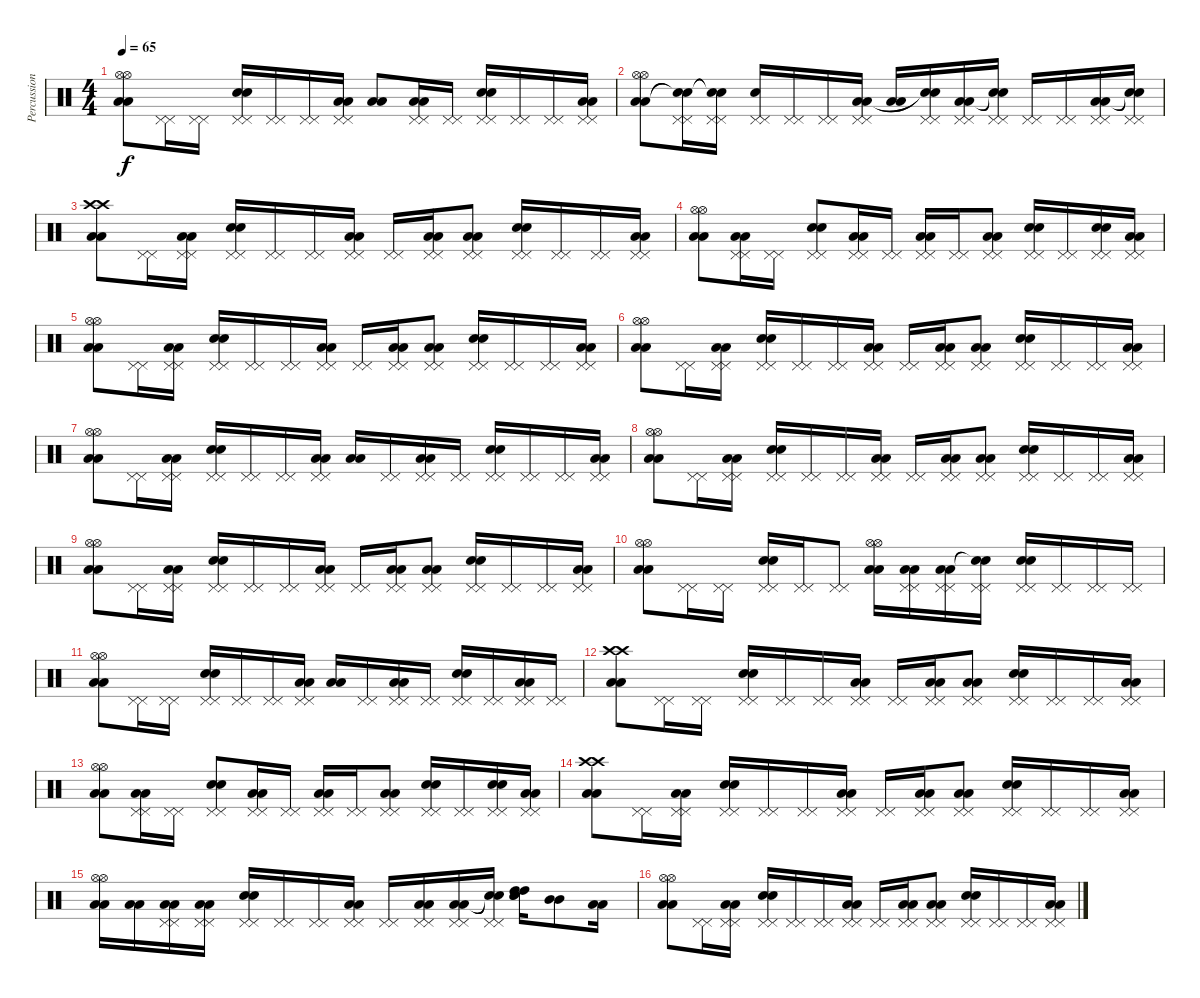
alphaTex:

\track ("Percussions" "Percussion") {instrument percussion}
\staff {score}
\articulation defaults
\ts (4 4)
\tempo 65
\clef neutral
\ks c
("Hi-Hat (open)" "Hi-Hat (open)" "Low Floor Tom (hit)" "Low Floor Tom (hit)").8{dy f} ("Pedal Hi-Hat (hit)" "Pedal Hi-Hat (hit)").16 ("Pedal Hi-Hat (hit)" "Pedal Hi-Hat (hit)").16 ("Pedal Hi-Hat (hit)" "Pedal Hi-Hat (hit)" "Snare (hit) 2" "Snare (hit) 2").16 ("Pedal Hi-Hat (hit)" "Pedal Hi-Hat (hit)").16 ("Pedal Hi-Hat (hit)" "Pedal Hi-Hat (hit)").16 ("Pedal Hi-Hat (hit)" "Pedal Hi-Hat (hit)" "Low Floor Tom (hit)" "Low Floor Tom (hit)").16 ("Low Floor Tom (hit)" "Low Floor Tom (hit)").8 ("Pedal Hi-Hat (hit)" "Pedal Hi-Hat (hit)" "Low Floor Tom (hit)" "Low Floor Tom (hit)").16 ("Pedal Hi-Hat (hit)" "Pedal Hi-Hat (hit)").16 ("Pedal Hi-Hat (hit)" "Pedal Hi-Hat (hit)" "Snare (hit) 2" "Snare (hit) 2").16 ("Pedal Hi-Hat (hit)" "Pedal Hi-Hat (hit)").16 ("Pedal Hi-Hat (hit)" "Pedal Hi-Hat (hit)").16 ("Pedal Hi-Hat (hit)" "Pedal Hi-Hat (hit)" "Low Floor Tom (hit)" "Low Floor Tom (hit)").16 |
("Hi-Hat (open)" "Hi-Hat (open)" "Low Floor Tom (hit)" "Low Floor Tom (hit)").8 ("Pedal Hi-Hat (hit)" "Pedal Hi-Hat (hit)" "Snare (hit)"{t} "Snare (hit)"{t}).16 ("Pedal Hi-Hat (hit)" "Pedal Hi-Hat (hit)" "Snare (hit)"{t} "Snare (hit)"{t}).16 ("Pedal Hi-Hat (hit)" "Pedal Hi-Hat (hit)" "Snare (hit) 2").16 ("Pedal Hi-Hat (hit)" "Pedal Hi-Hat (hit)").16 ("Pedal Hi-Hat (hit)" "Pedal Hi-Hat (hit)").16 ("Pedal Hi-Hat (hit)" "Pedal Hi-Hat (hit)" "Low Floor Tom (hit)" "Low Floor Tom (hit)").16 ("Low Floor Tom (hit)" "Low Floor Tom (hit)").16 ("Pedal Hi-Hat (hit)" "Pedal Hi-Hat (hit)" "Snare (hit)"{t} "Snare (hit)"{t}).16 ("Pedal Hi-Hat (hit)" "Pedal Hi-Hat (hit)" "Low Floor Tom (hit)" "Low Floor Tom (hit)").16 ("Pedal Hi-Hat (hit)" "Pedal Hi-Hat (hit)" "Snare (hit)"{t} "Snare (hit)"{t}).16 ("Pedal Hi-Hat (hit)" "Pedal Hi-Hat (hit)").16 ("Pedal Hi-Hat (hit)" "Pedal Hi-Hat (hit)").16 ("Pedal Hi-Hat (hit)" "Pedal Hi-Hat (hit)" "Low Floor Tom (hit)" "Low Floor Tom (hit)").16 ("Pedal Hi-Hat (hit)" "Pedal Hi-Hat (hit)" "Snare (hit)"{t} "Snare (hit)"{t}).16 |
("Crash high (hit)" "Crash high (hit)" "Low Floor Tom (hit)" "Low Floor Tom (hit)").8 ("Pedal Hi-Hat (hit)" "Pedal Hi-Hat (hit)").16 ("Pedal Hi-Hat (hit)" "Pedal Hi-Hat (hit)" "Low Floor Tom (hit)" "Low Floor Tom (hit)").16 ("Pedal Hi-Hat (hit)" "Pedal Hi-Hat (hit)" "Snare (hit) 2" "Snare (hit) 2").16 ("Pedal Hi-Hat (hit)" "Pedal Hi-Hat (hit)").16 ("Pedal Hi-Hat (hit)" "Pedal Hi-Hat (hit)").16 ("Pedal Hi-Hat (hit)" "Pedal Hi-Hat (hit)" "Low Floor Tom (hit)" "Low Floor Tom (hit)").16 ("Pedal Hi-Hat (hit)" "Pedal Hi-Hat (hit)").16 ("Pedal Hi-Hat (hit)" "Pedal Hi-Hat (hit)" "Low Floor Tom (hit)" "Low Floor Tom (hit)").16 ("Pedal Hi-Hat (hit)" "Pedal Hi-Hat (hit)" "Low Floor Tom (hit)" "Low Floor Tom (hit)").8 ("Pedal Hi-Hat (hit)" "Pedal Hi-Hat (hit)" "Snare (hit) 2" "Snare (hit) 2").16 ("Pedal Hi-Hat (hit)" "Pedal Hi-Hat (hit)").16 ("Pedal Hi-Hat (hit)" "Pedal Hi-Hat (hit)").16 ("Pedal Hi-Hat (hit)" "Pedal Hi-Hat (hit)" "Low Floor Tom (hit)" "Low Floor Tom (hit)").16 |
("Hi-Hat (open)" "Hi-Hat (open)" "Low Floor Tom (hit)" "Low Floor Tom (hit)").8 ("Pedal Hi-Hat (hit)" "Pedal Hi-Hat (hit)" "Low Floor Tom (hit)" "Low Floor Tom (hit)").16 ("Pedal Hi-Hat (hit)" "Pedal Hi-Hat (hit)").16 ("Pedal Hi-Hat (hit)" "Pedal Hi-Hat (hit)" "Snare (hit) 2" "Snare (hit) 2").8 ("Pedal Hi-Hat (hit)" "Pedal Hi-Hat (hit)" "Low Floor Tom (hit)" "Low Floor Tom (hit)").16 ("Pedal Hi-Hat (hit)" "Pedal Hi-Hat (hit)").16 ("Pedal Hi-Hat (hit)" "Pedal Hi-Hat (hit)" "Low Floor Tom (hit)" "Low Floor Tom (hit)").16 ("Pedal Hi-Hat (hit)" "Pedal Hi-Hat (hit)").16 ("Pedal Hi-Hat (hit)" "Pedal Hi-Hat (hit)" "Low Floor Tom (hit)" "Low Floor Tom (hit)").8 ("Pedal Hi-Hat (hit)" "Pedal Hi-Hat (hit)" "Snare (hit) 2" "Snare (hit) 2").16 ("Pedal Hi-Hat (hit)" "Pedal Hi-Hat (hit)").16 ("Pedal Hi-Hat (hit)" "Pedal Hi-Hat (hit)" "Snare (hit) 2" "Snare (hit) 2").16 ("Pedal Hi-Hat (hit)" "Pedal Hi-Hat (hit)" "Low Floor Tom (hit)" "Low Floor Tom (hit)").16 |
("Hi-Hat (open)" "Hi-Hat (open)" "Low Floor Tom (hit)" "Low Floor Tom (hit)").8 ("Pedal Hi-Hat (hit)" "Pedal Hi-Hat (hit)").16 ("Pedal Hi-Hat (hit)" "Pedal Hi-Hat (hit)" "Low Floor Tom (hit)" "Low Floor Tom (hit)").16 ("Pedal Hi-Hat (hit)" "Pedal Hi-Hat (hit)" "Snare (hit) 2" "Snare (hit) 2").16 ("Pedal Hi-Hat (hit)" "Pedal Hi-Hat (hit)").16 ("Pedal Hi-Hat (hit)" "Pedal Hi-Hat (hit)").16 ("Pedal Hi-Hat (hit)" "Pedal Hi-Hat (hit)" "Low Floor Tom (hit)" "Low Floor Tom (hit)").16 ("Pedal Hi-Hat (hit)" "Pedal Hi-Hat (hit)").16 ("Pedal Hi-Hat (hit)" "Pedal Hi-Hat (hit)" "Low Floor Tom (hit)" "Low Floor Tom (hit)").16 ("Pedal Hi-Hat (hit)" "Pedal Hi-Hat (hit)" "Low Floor Tom (hit)" "Low Floor Tom (hit)").8 ("Pedal Hi-Hat (hit)" "Pedal Hi-Hat (hit)" "Snare (hit) 2" "Snare (hit) 2").16 ("Pedal Hi-Hat (hit)" "Pedal Hi-Hat (hit)").16 ("Pedal Hi-Hat (hit)" "Pedal Hi-Hat (hit)").16 ("Pedal Hi-Hat (hit)" "Pedal Hi-Hat (hit)" "Low Floor Tom (hit)" "Low Floor Tom (hit)").16 |
("Hi-Hat (open)" "Hi-Hat (open)" "Low Floor Tom (hit)" "Low Floor Tom (hit)").8 ("Pedal Hi-Hat (hit)" "Pedal Hi-Hat (hit)").16 ("Pedal Hi-Hat (hit)" "Pedal Hi-Hat (hit)" "Low Floor Tom (hit)" "Low Floor Tom (hit)").16 ("Pedal Hi-Hat (hit)" "Pedal Hi-Hat (hit)" "Snare (hit) 2" "Snare (hit) 2").16 ("Pedal Hi-Hat (hit)" "Pedal Hi-Hat (hit)").16 ("Pedal Hi-Hat (hit)" "Pedal Hi-Hat (hit)").16 ("Pedal Hi-Hat (hit)" "Pedal Hi-Hat (hit)" "Low Floor Tom (hit)" "Low Floor Tom (hit)").16 ("Pedal Hi-Hat (hit)" "Pedal Hi-Hat (hit)").16 ("Pedal Hi-Hat (hit)" "Pedal Hi-Hat (hit)" "Low Floor Tom (hit)" "Low Floor Tom (hit)").16 ("Pedal Hi-Hat (hit)" "Pedal Hi-Hat (hit)" "Low Floor Tom (hit)" "Low Floor Tom (hit)").8 ("Pedal Hi-Hat (hit)" "Pedal Hi-Hat (hit)" "Snare (hit) 2" "Snare (hit) 2").16 ("Pedal Hi-Hat (hit)" "Pedal Hi-Hat (hit)").16 ("Pedal Hi-Hat (hit)" "Pedal Hi-Hat (hit)").16 ("Pedal Hi-Hat (hit)" "Pedal Hi-Hat (hit)" "Low Floor Tom (hit)" "Low Floor Tom (hit)").16 |
("Hi-Hat (open)" "Hi-Hat (open)" "Low Floor Tom (hit)" "Low Floor Tom (hit)").8 ("Pedal Hi-Hat (hit)" "Pedal Hi-Hat (hit)").16 ("Pedal Hi-Hat (hit)" "Pedal Hi-Hat (hit)" "Low Floor Tom (hit)" "Low Floor Tom (hit)").16 ("Pedal Hi-Hat (hit)" "Pedal Hi-Hat (hit)" "Snare (hit) 2" "Snare (hit) 2").16 ("Pedal Hi-Hat (hit)" "Pedal Hi-Hat (hit)").16 ("Pedal Hi-Hat (hit)" "Pedal Hi-Hat (hit)").16 ("Pedal Hi-Hat (hit)" "Pedal Hi-Hat (hit)" "Low Floor Tom (hit)" "Low Floor Tom (hit)").16 ("Low Floor Tom (hit)" "Low Floor Tom (hit)").16 ("Pedal Hi-Hat (hit)" "Pedal Hi-Hat (hit)").16 ("Pedal Hi-Hat (hit)" "Pedal Hi-Hat (hit)" "Low Floor Tom (hit)" "Low Floor Tom (hit)").16 ("Pedal Hi-Hat (hit)" "Pedal Hi-Hat (hit)").16 ("Pedal Hi-Hat (hit)" "Pedal Hi-Hat (hit)" "Snare (hit) 2" "Snare (hit) 2").16 ("Pedal Hi-Hat (hit)" "Pedal Hi-Hat (hit)").16 ("Pedal Hi-Hat (hit)" "Pedal Hi-Hat (hit)").16 ("Pedal Hi-Hat (hit)" "Pedal Hi-Hat (hit)" "Low Floor Tom (hit)" "Low Floor Tom (hit)").16 |
("Hi-Hat (open)" "Hi-Hat (open)" "Low Floor Tom (hit)" "Low Floor Tom (hit)").8 ("Pedal Hi-Hat (hit)" "Pedal Hi-Hat (hit)").16 ("Pedal Hi-Hat (hit)" "Pedal Hi-Hat (hit)" "Low Floor Tom (hit)" "Low Floor Tom (hit)").16 ("Pedal Hi-Hat (hit)" "Pedal Hi-Hat (hit)" "Snare (hit) 2" "Snare (hit) 2").16 ("Pedal Hi-Hat (hit)" "Pedal Hi-Hat (hit)").16 ("Pedal Hi-Hat (hit)" "Pedal Hi-Hat (hit)").16 ("Pedal Hi-Hat (hit)" "Pedal Hi-Hat (hit)" "Low Floor Tom (hit)" "Low Floor Tom (hit)").16 ("Pedal Hi-Hat (hit)" "Pedal Hi-Hat (hit)").16 ("Pedal Hi-Hat (hit)" "Pedal Hi-Hat (hit)" "Low Floor Tom (hit)" "Low Floor Tom (hit)").16 ("Pedal Hi-Hat (hit)" "Pedal Hi-Hat (hit)" "Low Floor Tom (hit)" "Low Floor Tom (hit)").8 ("Pedal Hi-Hat (hit)" "Pedal Hi-Hat (hit)" "Snare (hit) 2" "Snare (hit) 2").16 ("Pedal Hi-Hat (hit)" "Pedal Hi-Hat (hit)").16 ("Pedal Hi-Hat (hit)" "Pedal Hi-Hat (hit)").16 ("Pedal Hi-Hat (hit)" "Pedal Hi-Hat (hit)" "Low Floor Tom (hit)" "Low Floor Tom (hit)").16 |
("Hi-Hat (open)" "Hi-Hat (open)" "Low Floor Tom (hit)" "Low Floor Tom (hit)").8 ("Pedal Hi-Hat (hit)" "Pedal Hi-Hat (hit)").16 ("Pedal Hi-Hat (hit)" "Pedal Hi-Hat (hit)" "Low Floor Tom (hit)" "Low Floor Tom (hit)").16 ("Pedal Hi-Hat (hit)" "Pedal Hi-Hat (hit)" "Snare (hit) 2" "Snare (hit) 2").16 ("Pedal Hi-Hat (hit)" "Pedal Hi-Hat (hit)").16 ("Pedal Hi-Hat (hit)" "Pedal Hi-Hat (hit)").16 ("Pedal Hi-Hat (hit)" "Pedal Hi-Hat (hit)" "Low Floor Tom (hit)" "Low Floor Tom (hit)").16 ("Pedal Hi-Hat (hit)" "Pedal Hi-Hat (hit)").16 ("Pedal Hi-Hat (hit)" "Pedal Hi-Hat (hit)" "Low Floor Tom (hit)" "Low Floor Tom (hit)").16 ("Pedal Hi-Hat (hit)" "Pedal Hi-Hat (hit)" "Low Floor Tom (hit)" "Low Floor Tom (hit)").8 ("Pedal Hi-Hat (hit)" "Pedal Hi-Hat (hit)" "Snare (hit) 2" "Snare (hit) 2").16 ("Pedal Hi-Hat (hit)" "Pedal Hi-Hat (hit)").16 ("Pedal Hi-Hat (hit)" "Pedal Hi-Hat (hit)").16 ("Pedal Hi-Hat (hit)" "Pedal Hi-Hat (hit)" "Low Floor Tom (hit)" "Low Floor Tom (hit)").16 |
("Hi-Hat (open)" "Hi-Hat (open)" "Low Floor Tom (hit)" "Low Floor Tom (hit)").8 ("Pedal Hi-Hat (hit)" "Pedal Hi-Hat (hit)").16 ("Pedal Hi-Hat (hit)" "Pedal Hi-Hat (hit)").16 ("Pedal Hi-Hat (hit)" "Pedal Hi-Hat (hit)" "Snare (hit) 2" "Snare (hit) 2").16 ("Pedal Hi-Hat (hit)" "Pedal Hi-Hat (hit)").16 ("Pedal Hi-Hat (hit)" "Pedal Hi-Hat (hit)").8 ("Hi-Hat (open)" "Hi-Hat (open)" "Low Floor Tom (hit)" "Low Floor Tom (hit)").16 ("Pedal Hi-Hat (hit)" "Pedal Hi-Hat (hit)" "Low Floor Tom (hit)" "Low Floor Tom (hit)").16 ("Pedal Hi-Hat (hit)" "Pedal Hi-Hat (hit)" "Low Floor Tom (hit)" "Low Floor Tom (hit)").16 ("Pedal Hi-Hat (hit)" "Pedal Hi-Hat (hit)" "Snare (hit)"{t} "Snare (hit)"{t}).16 ("Pedal Hi-Hat (hit)" "Pedal Hi-Hat (hit)" "Snare (hit) 2" "Snare (hit) 2").16 ("Pedal Hi-Hat (hit)" "Pedal Hi-Hat (hit)").16 ("Pedal Hi-Hat (hit)" "Pedal Hi-Hat (hit)").16 ("Pedal Hi-Hat (hit)" "Pedal Hi-Hat (hit)").16 |
("Hi-Hat (open)" "Hi-Hat (open)" "Low Floor Tom (hit)" "Low Floor Tom (hit)").8 ("Pedal Hi-Hat (hit)" "Pedal Hi-Hat (hit)").16 ("Pedal Hi-Hat (hit)" "Pedal Hi-Hat (hit)").16 ("Pedal Hi-Hat (hit)" "Pedal Hi-Hat (hit)" "Snare (hit) 2" "Snare (hit) 2").16 ("Pedal Hi-Hat (hit)" "Pedal Hi-Hat (hit)").16 ("Pedal Hi-Hat (hit)" "Pedal Hi-Hat (hit)").16 ("Pedal Hi-Hat (hit)" "Pedal Hi-Hat (hit)" "Low Floor Tom (hit)" "Low Floor Tom (hit)").16 ("Low Floor Tom (hit)" "Low Floor Tom (hit)").16 ("Pedal Hi-Hat (hit)" "Pedal Hi-Hat (hit)").16 ("Pedal Hi-Hat (hit)" "Pedal Hi-Hat (hit)" "Low Floor Tom (hit)" "Low Floor Tom (hit)").16 ("Pedal Hi-Hat (hit)" "Pedal Hi-Hat (hit)").16 ("Pedal Hi-Hat (hit)" "Pedal Hi-Hat (hit)" "Snare (hit) 2" "Snare (hit) 2").16 ("Pedal Hi-Hat (hit)" "Pedal Hi-Hat (hit)").16 ("Pedal Hi-Hat (hit)" "Pedal Hi-Hat (hit)" "Low Floor Tom (hit)" "Low Floor Tom (hit)").16 ("Pedal Hi-Hat (hit)" "Pedal Hi-Hat (hit)").16 |
("Crash high (hit)" "Crash high (hit)" "Low Floor Tom (hit)" "Low Floor Tom (hit)").8 ("Pedal Hi-Hat (hit)" "Pedal Hi-Hat (hit)").16 ("Pedal Hi-Hat (hit)" "Pedal Hi-Hat (hit)").16 ("Pedal Hi-Hat (hit)" "Pedal Hi-Hat (hit)" "Snare (hit) 2" "Snare (hit) 2").16 ("Pedal Hi-Hat (hit)" "Pedal Hi-Hat (hit)").16 ("Pedal Hi-Hat (hit)" "Pedal Hi-Hat (hit)").16 ("Pedal Hi-Hat (hit)" "Pedal Hi-Hat (hit)" "Low Floor Tom (hit)" "Low Floor Tom (hit)").16 ("Pedal Hi-Hat (hit)" "Pedal Hi-Hat (hit)").16 ("Pedal Hi-Hat (hit)" "Pedal Hi-Hat (hit)" "Low Floor Tom (hit)" "Low Floor Tom (hit)").16 ("Pedal Hi-Hat (hit)" "Pedal Hi-Hat (hit)" "Low Floor Tom (hit)" "Low Floor Tom (hit)").8 ("Pedal Hi-Hat (hit)" "Pedal Hi-Hat (hit)" "Snare (hit) 2" "Snare (hit) 2").16 ("Pedal Hi-Hat (hit)" "Pedal Hi-Hat (hit)").16 ("Pedal Hi-Hat (hit)" "Pedal Hi-Hat (hit)").16 ("Pedal Hi-Hat (hit)" "Pedal Hi-Hat (hit)" "Low Floor Tom (hit)" "Low Floor Tom (hit)").16 |
("Hi-Hat (open)" "Hi-Hat (open)" "Low Floor Tom (hit)" "Low Floor Tom (hit)").8 ("Pedal Hi-Hat (hit)" "Pedal Hi-Hat (hit)" "Low Floor Tom (hit)" "Low Floor Tom (hit)").16 ("Pedal Hi-Hat (hit)" "Pedal Hi-Hat (hit)").16 ("Pedal Hi-Hat (hit)" "Pedal Hi-Hat (hit)" "Snare (hit) 2" "Snare (hit) 2").8 ("Pedal Hi-Hat (hit)" "Pedal Hi-Hat (hit)" "Low Floor Tom (hit)" "Low Floor Tom (hit)").16 ("Pedal Hi-Hat (hit)" "Pedal Hi-Hat (hit)").16 ("Pedal Hi-Hat (hit)" "Pedal Hi-Hat (hit)" "Low Floor Tom (hit)" "Low Floor Tom (hit)").16 ("Pedal Hi-Hat (hit)" "Pedal Hi-Hat (hit)").16 ("Pedal Hi-Hat (hit)" "Pedal Hi-Hat (hit)" "Low Floor Tom (hit)" "Low Floor Tom (hit)").8 ("Pedal Hi-Hat (hit)" "Pedal Hi-Hat (hit)" "Snare (hit) 2" "Snare (hit) 2").16 ("Pedal Hi-Hat (hit)" "Pedal Hi-Hat (hit)").16 ("Pedal Hi-Hat (hit)" "Pedal Hi-Hat (hit)" "Snare (hit) 2" "Snare (hit) 2").16 ("Pedal Hi-Hat (hit)" "Pedal Hi-Hat (hit)" "Low Floor Tom (hit)" "Low Floor Tom (hit)").16 |
("Crash high (hit)" "Crash high (hit)" "Low Floor Tom (hit)" "Low Floor Tom (hit)").8 ("Pedal Hi-Hat (hit)" "Pedal Hi-Hat (hit)").16 ("Pedal Hi-Hat (hit)" "Pedal Hi-Hat (hit)" "Low Floor Tom (hit)" "Low Floor Tom (hit)").16 ("Pedal Hi-Hat (hit)" "Pedal Hi-Hat (hit)" "Snare (hit) 2" "Snare (hit) 2").16 ("Pedal Hi-Hat (hit)" "Pedal Hi-Hat (hit)").16 ("Pedal Hi-Hat (hit)" "Pedal Hi-Hat (hit)").16 ("Pedal Hi-Hat (hit)" "Pedal Hi-Hat (hit)" "Low Floor Tom (hit)" "Low Floor Tom (hit)").16 ("Pedal Hi-Hat (hit)" "Pedal Hi-Hat (hit)").16 ("Pedal Hi-Hat (hit)" "Pedal Hi-Hat (hit)" "Low Floor Tom (hit)" "Low Floor Tom (hit)").16 ("Pedal Hi-Hat (hit)" "Pedal Hi-Hat (hit)" "Low Floor Tom (hit)" "Low Floor Tom (hit)").8 ("Pedal Hi-Hat (hit)" "Pedal Hi-Hat (hit)" "Snare (hit) 2" "Snare (hit) 2").16 ("Pedal Hi-Hat (hit)" "Pedal Hi-Hat (hit)").16 ("Pedal Hi-Hat (hit)" "Pedal Hi-Hat (hit)").16 ("Pedal Hi-Hat (hit)" "Pedal Hi-Hat (hit)" "Low Floor Tom (hit)" "Low Floor Tom (hit)").16 |
("Hi-Hat (open)" "Hi-Hat (open)" "Low Floor Tom (hit)" "Low Floor Tom (hit)").16 ("Low Floor Tom (hit)" "Low Floor Tom (hit)").16 ("Pedal Hi-Hat (hit)" "Pedal Hi-Hat (hit)" "Low Floor Tom (hit)" "Low Floor Tom (hit)").16 ("Pedal Hi-Hat (hit)" "Pedal Hi-Hat (hit)" "Low Floor Tom (hit)" "Low Floor Tom (hit)").16 ("Pedal Hi-Hat (hit)" "Pedal Hi-Hat (hit)" "Snare (hit) 2" "Snare (hit) 2").16 ("Pedal Hi-Hat (hit)" "Pedal Hi-Hat (hit)").16 ("Pedal Hi-Hat (hit)" "Pedal Hi-Hat (hit)").16 ("Pedal Hi-Hat (hit)" "Pedal Hi-Hat (hit)" "Low Floor Tom (hit)" "Low Floor Tom (hit)").16 ("Pedal Hi-Hat (hit)" "Pedal Hi-Hat (hit)").16 ("Pedal Hi-Hat (hit)" "Pedal Hi-Hat (hit)" "Low Floor Tom (hit)" "Low Floor Tom (hit)").16 ("Pedal Hi-Hat (hit)" "Pedal Hi-Hat (hit)" "Low Floor Tom (hit)" "Low Floor Tom (hit)").16 ("Pedal Hi-Hat (hit)" "Pedal Hi-Hat (hit)" "Snare (hit)"{t} "Snare (hit)"{t}).16 ("High Tom (hit)" "High Tom (hit)" "Snare (hit) 2" "Snare (hit) 2").16 ("Mid Tom (hit)" "Mid Tom (hit)").8 ("Low Tom (hit)" "Low Tom (hit)").16 |
("Hi-Hat (open)" "Hi-Hat (open)" "Low Floor Tom (hit)" "Low Floor Tom (hit)").8 ("Pedal Hi-Hat (hit)" "Pedal Hi-Hat (hit)").16 ("Pedal Hi-Hat (hit)" "Pedal Hi-Hat (hit)" "Low Floor Tom (hit)" "Low Floor Tom (hit)").16 ("Pedal Hi-Hat (hit)" "Pedal Hi-Hat (hit)" "Snare (hit) 2" "Snare (hit) 2").16 ("Pedal Hi-Hat (hit)" "Pedal Hi-Hat (hit)").16 ("Pedal Hi-Hat (hit)" "Pedal Hi-Hat (hit)").16 ("Pedal Hi-Hat (hit)" "Pedal Hi-Hat (hit)" "Low Floor Tom (hit)" "Low Floor Tom (hit)").16 ("Pedal Hi-Hat (hit)" "Pedal Hi-Hat (hit)").16 ("Pedal Hi-Hat (hit)" "Pedal Hi-Hat (hit)" "Low Floor Tom (hit)" "Low Floor Tom (hit)").16 ("Pedal Hi-Hat (hit)" "Pedal Hi-Hat (hit)" "Low Floor Tom (hit)" "Low Floor Tom (hit)").8 ("Pedal Hi-Hat (hit)" "Pedal Hi-Hat (hit)" "Snare (hit) 2" "Snare (hit) 2").16 ("Pedal Hi-Hat (hit)" "Pedal Hi-Hat (hit)").16 ("Pedal Hi-Hat (hit)" "Pedal Hi-Hat (hit)").16 ("Pedal Hi-Hat (hit)" "Pedal Hi-Hat (hit)" "Low Tom (hit)" "Low Tom (hit)").16
